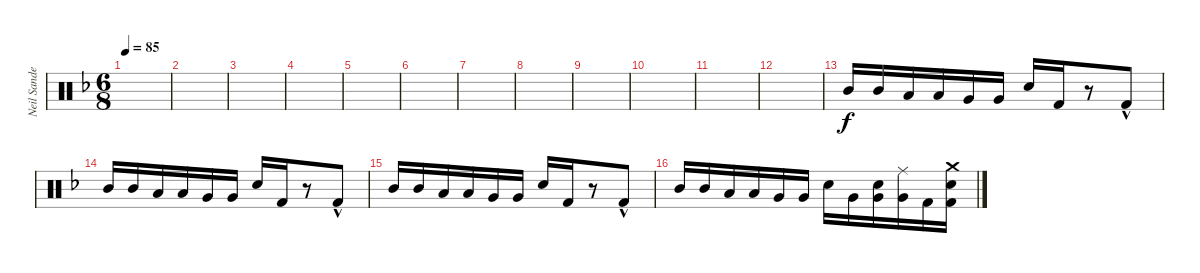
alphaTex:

\track ("Neil Sanderson" "Neil Sande") {instrument percussion}
\staff {score}
\articulation defaults
\ts (6 8)
\tempo 85
\clef neutral
\ks f
|
|
|
|
|
|
|
|
|
|
|
|
"Mid Tom (hit)".16 "Mid Tom (hit)".16 "Low Tom (hit)".16 "Low Tom (hit)".16 "Very Low Tom (hit)".16 "Very Low Tom (hit)".16 "Snare (hit) 2".16 "Kick (hit) 2".16 r.8 "Kick (hit) 2"{hac}.8 |
"Mid Tom (hit)".16 "Mid Tom (hit)".16 "Low Tom (hit)".16 "Low Tom (hit)".16 "Very Low Tom (hit)".16 "Very Low Tom (hit)".16 "Snare (hit) 2".16 "Kick (hit) 2".16 r.8 "Kick (hit) 2"{hac}.8 |
"Mid Tom (hit)".16 "Mid Tom (hit)".16 "Low Tom (hit)".16 "Low Tom (hit)".16 "Very Low Tom (hit)".16 "Very Low Tom (hit)".16 "Snare (hit) 2".16 "Kick (hit) 2".16 r.8 "Kick (hit) 2"{hac}.8 |
"Mid Tom (hit)".16 "Mid Tom (hit)".16 "Low Tom (hit)".16 "Low Tom (hit)".16 "Very Low Tom (hit)".16 "Very Low Tom (hit)".16 "Snare (hit) 2".16 "Very Low Tom (hit)".16 ("Very Low Tom (hit)" "Snare (hit) 2").16 ("Ride (middle)" "Very Low Tom (hit)").16 "Kick (hit) 2".16 ("Crash medium (hit)" "Snare (hit) 2" "Kick (hit) 2").16
